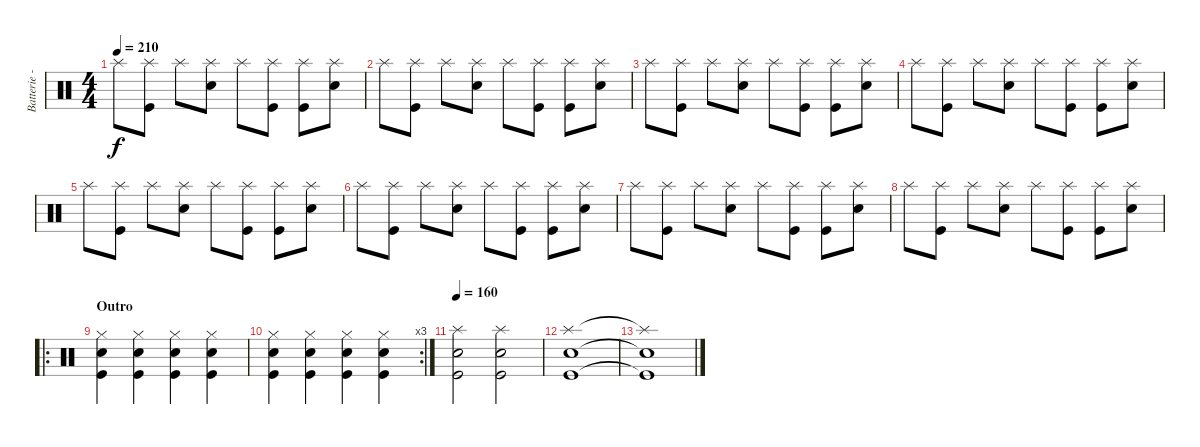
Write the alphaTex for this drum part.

\track ("Batterie - Guillaume" "Batterie -") {instrument percussion}
\staff {score}
\articulation defaults
\ts (4 4)
\tempo 210
\clef neutral
\ks c "Splash (hit)".8{dy f}
("Splash (hit)" "Kick (hit)").8 "Splash (hit)".8 ("Splash (hit)" "Snare (hit) 2").8 "Splash (hit)".8 ("Splash (hit)" "Kick (hit)").8 ("Splash (hit)" "Kick (hit)").8 ("Splash (hit)" "Snare (hit) 2").8 |
"Splash (hit)".8 ("Splash (hit)" "Kick (hit)").8 "Splash (hit)".8 ("Splash (hit)" "Snare (hit) 2").8 "Splash (hit)".8 ("Splash (hit)" "Kick (hit)").8 ("Splash (hit)" "Kick (hit)").8 ("Splash (hit)" "Snare (hit) 2").8 |
"Splash (hit)".8 ("Splash (hit)" "Kick (hit)").8 "Splash (hit)".8 ("Splash (hit)" "Snare (hit) 2").8 "Splash (hit)".8 ("Splash (hit)" "Kick (hit)").8 ("Splash (hit)" "Kick (hit)").8 ("Splash (hit)" "Snare (hit) 2").8 |
"Splash (hit)".8 ("Splash (hit)" "Kick (hit)").8 "Splash (hit)".8 ("Splash (hit)" "Snare (hit) 2").8 "Splash (hit)".8 ("Splash (hit)" "Kick (hit)").8 ("Splash (hit)" "Kick (hit)").8 ("Splash (hit)" "Snare (hit) 2").8 |
"Splash (hit)".8 ("Splash (hit)" "Kick (hit)").8 "Splash (hit)".8 ("Splash (hit)" "Snare (hit) 2").8 "Splash (hit)".8 ("Splash (hit)" "Kick (hit)").8 ("Splash (hit)" "Kick (hit)").8 ("Splash (hit)" "Snare (hit) 2").8 |
"Splash (hit)".8 ("Splash (hit)" "Kick (hit)").8 "Splash (hit)".8 ("Splash (hit)" "Snare (hit) 2").8 "Splash (hit)".8 ("Splash (hit)" "Kick (hit)").8 ("Splash (hit)" "Kick (hit)").8 ("Splash (hit)" "Snare (hit) 2").8 |
"Splash (hit)".8 ("Splash (hit)" "Kick (hit)").8 "Splash (hit)".8 ("Splash (hit)" "Snare (hit) 2").8 "Splash (hit)".8 ("Splash (hit)" "Kick (hit)").8 ("Splash (hit)" "Kick (hit)").8 ("Splash (hit)" "Snare (hit) 2").8 |
"Splash (hit)".8 ("Splash (hit)" "Kick (hit)").8 "Splash (hit)".8 ("Splash (hit)" "Snare (hit) 2").8 "Splash (hit)".8 ("Splash (hit)" "Kick (hit)").8 ("Splash (hit)" "Kick (hit)").8 ("Splash (hit)" "Snare (hit) 2").8 |
\ro
\section ("" "Outro")
("Hi-Hat (closed)" "Snare (hit) 2" "Kick (hit)").4 ("Hi-Hat (closed)" "Snare (hit) 2" "Kick (hit)").4 ("Hi-Hat (closed)" "Snare (hit) 2" "Kick (hit)").4 ("Hi-Hat (closed)" "Snare (hit) 2" "Kick (hit)").4 |
\rc 3
("Hi-Hat (closed)" "Snare (hit) 2" "Kick (hit)").4 ("Hi-Hat (closed)" "Snare (hit) 2" "Kick (hit)").4 ("Hi-Hat (closed)" "Snare (hit) 2" "Kick (hit)").4 ("Hi-Hat (closed)" "Snare (hit) 2" "Kick (hit)").4 |
\tempo 160
("Splash (hit)" "Snare (hit) 2" "Kick (hit)").2 ("Splash (hit)" "Snare (hit) 2" "Kick (hit)").2 |
("Splash (hit)" "Snare (hit) 2" "Kick (hit)").1{volume 0} |
("Splash (hit)"{t} "Snare (hit) 2"{t} "Kick (hit)"{t}).1
